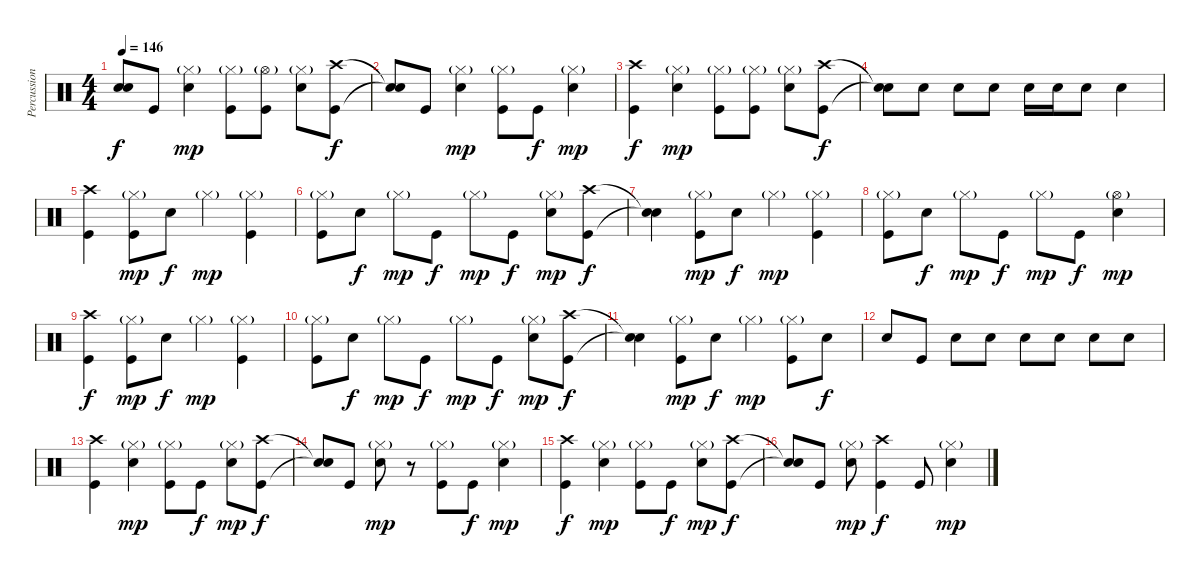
\track ("Percussion" "Percussion") {instrument percussion}
\staff {score}
\articulation defaults
\ts (4 4)
\tempo 146
\clef neutral
\ks c
("Snare (hit)"{t} "Snare (hit)"{t}).8{dy f} "Kick (hit)".8 ("Hi-Hat (closed)"{g} "Snare (hit) 2").4{dy mp} ("Hi-Hat (closed)"{g} "Kick (hit)").8 ("Hi-Hat (open)"{g} "Kick (hit)").8 ("Hi-Hat (closed)"{g} "Snare (hit) 2").8 ("Crash high (hit)" "Kick (hit)").8{dy f} |
("Snare (hit)"{t} "Snare (hit)"{t}).8 "Kick (hit)".8 ("Hi-Hat (closed)"{g} "Snare (hit) 2").4{dy mp} ("Hi-Hat (closed)"{g} "Kick (hit)").8 "Kick (hit)".8{dy f} ("Hi-Hat (closed)"{g} "Snare (hit) 2").4{dy mp} |
("Crash high (hit)" "Kick (hit)").4{dy f} ("Hi-Hat (closed)"{g} "Snare (hit) 2").4{dy mp} ("Hi-Hat (closed)"{g} "Kick (hit)").8 ("Hi-Hat (closed)"{g} "Kick (hit)").8 ("Hi-Hat (closed)"{g} "Snare (hit) 2").8 ("Crash high (hit)" "Kick (hit)").8{dy f} |
("Snare (hit)"{t} "Snare (hit)"{t}).8 "Snare (hit) 2".8 "Snare (hit) 2".8 "Snare (hit) 2".8 "Snare (hit) 2".16 "Snare (hit) 2".16 "Snare (hit) 2".8 "Snare (hit) 2".4 |
("Crash high (hit)" "Kick (hit)").4 ("Hi-Hat (closed)"{g} "Kick (hit)").8{dy mp} "Snare (hit) 2".8{dy f} "Hi-Hat (closed)"{g}.4{dy mp} ("Hi-Hat (closed)"{g} "Kick (hit)").4 |
("Hi-Hat (closed)"{g} "Kick (hit)").8 "Snare (hit) 2".8{dy f} "Hi-Hat (closed)"{g}.8{dy mp} "Kick (hit)".8{dy f} "Hi-Hat (closed)"{g}.8{dy mp} "Kick (hit)".8{dy f} ("Hi-Hat (closed)"{g} "Snare (hit) 2").8{dy mp} ("Crash high (hit)" "Kick (hit)").8{dy f} |
("Snare (hit)"{t} "Snare (hit)"{t}).4 ("Hi-Hat (closed)"{g} "Kick (hit)").8{dy mp} "Snare (hit) 2".8{dy f} "Hi-Hat (closed)"{g}.4{dy mp} ("Hi-Hat (closed)"{g} "Kick (hit)").4 |
("Hi-Hat (closed)"{g} "Kick (hit)").8 "Snare (hit) 2".8{dy f} "Hi-Hat (closed)"{g}.8{dy mp} "Kick (hit)".8{dy f} "Hi-Hat (closed)"{g}.8{dy mp} "Kick (hit)".8{dy f} ("Hi-Hat (open)"{g} "Snare (hit) 2").4{dy mp} |
("Crash high (hit)" "Kick (hit)").4{dy f} ("Hi-Hat (closed)"{g} "Kick (hit)").8{dy mp} "Snare (hit) 2".8{dy f} "Hi-Hat (closed)"{g}.4{dy mp} ("Hi-Hat (closed)"{g} "Kick (hit)").4 |
("Hi-Hat (closed)"{g} "Kick (hit)").8 "Snare (hit) 2".8{dy f} "Hi-Hat (closed)"{g}.8{dy mp} "Kick (hit)".8{dy f} "Hi-Hat (closed)"{g}.8{dy mp} "Kick (hit)".8{dy f} ("Hi-Hat (closed)"{g} "Snare (hit) 2").8{dy mp} ("Crash high (hit)" "Kick (hit)").8{dy f} |
("Snare (hit)"{t} "Snare (hit)"{t}).4 ("Hi-Hat (closed)"{g} "Kick (hit)").8{dy mp} "Snare (hit) 2".8{dy f} "Hi-Hat (closed)"{g}.4{dy mp} ("Hi-Hat (closed)"{g} "Kick (hit)").8 "Snare (hit) 2".8{dy f} |
"Snare (hit) 2".8 "Kick (hit)".8 "Snare (hit) 2".8 "Snare (hit) 2".8 "Snare (hit) 2".8 "Snare (hit) 2".8 "Snare (hit) 2".8 "Snare (hit) 2".8 |
("Crash high (hit)" "Kick (hit)").4 ("Hi-Hat (closed)"{g} "Snare (hit) 2").4{dy mp} ("Hi-Hat (closed)"{g} "Kick (hit)").8 "Kick (hit)".8{dy f} ("Hi-Hat (closed)"{g} "Snare (hit) 2").8{dy mp} ("Crash high (hit)" "Kick (hit)").8{dy f} |
("Snare (hit)"{t} "Snare (hit)"{t}).8 "Kick (hit)".8 ("Hi-Hat (closed)"{g} "Snare (hit) 2").8{dy mp} r.8 ("Hi-Hat (closed)"{g} "Kick (hit)").8 "Kick (hit)".8{dy f} ("Hi-Hat (closed)"{g} "Snare (hit) 2").4{dy mp} |
("Crash high (hit)" "Kick (hit)").4{dy f} ("Hi-Hat (closed)"{g} "Snare (hit) 2").4{dy mp} ("Hi-Hat (closed)"{g} "Kick (hit)").8 "Kick (hit)".8{dy f} ("Hi-Hat (closed)"{g} "Snare (hit) 2").8{dy mp} ("Crash high (hit)" "Kick (hit)").8{dy f} |
("Snare (hit)"{t} "Snare (hit)"{t}).8 "Kick (hit)".8 ("Hi-Hat (closed)"{g} "Snare (hit) 2").8{dy mp} ("Crash high (hit)" "Kick (hit)").4{dy f} "Kick (hit)".8 ("Hi-Hat (closed)"{g} "Snare (hit) 2").4{dy mp}
